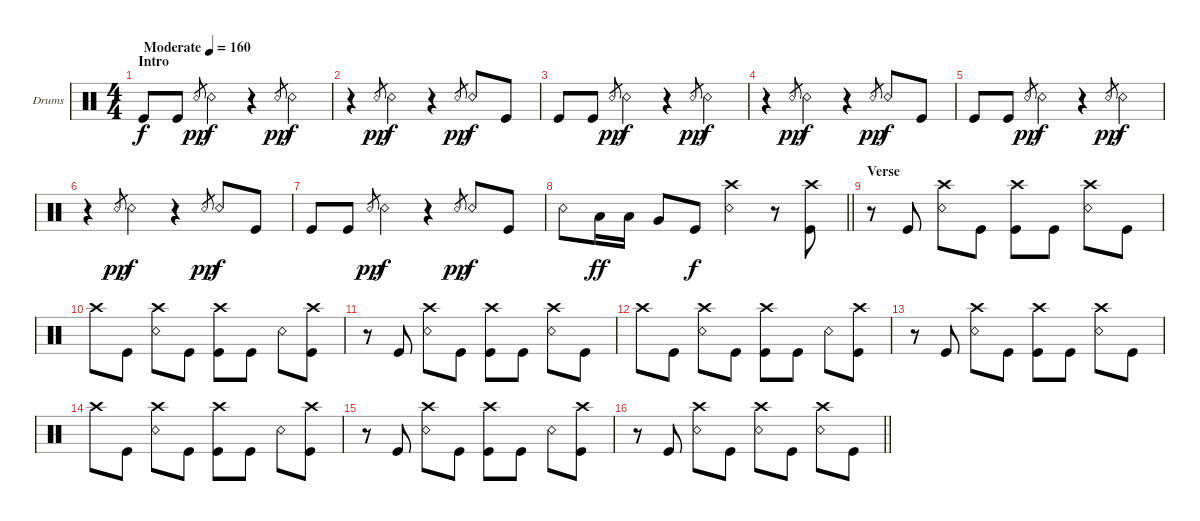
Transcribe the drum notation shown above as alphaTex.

\bracketExtendMode groupsimilarinstruments
\firstSystemTrackNameOrientation horizontal
\otherSystemsTrackNameOrientation horizontal
\track ("Drums" "Drums") {instrument percussion}
\staff {score}
\articulation defaults
\ts (4 4)
\beaming (8 2 2 2 2)
\section ("" "Intro")
\tempo (160 "Moderate")
\clef neutral
\ks c "Kick (hit)".8{dy f} "Kick (hit)".8 "Snare (rim shot)".8{gr dy pp} "Snare (rim shot)".4{dy f}
r.4 "Snare (rim shot)".8{gr dy pp} "Snare (rim shot)".4{dy f} |
r.4 "Snare (rim shot)".8{gr dy pp} "Snare (rim shot)".4{dy f} r.4 "Snare (rim shot)".8{gr dy pp} "Snare (rim shot)".8{dy f} "Kick (hit)".8 |
"Kick (hit)".8 "Kick (hit)".8 "Snare (rim shot)".8{gr dy pp} "Snare (rim shot)".4{dy f} r.4 "Snare (rim shot)".8{gr dy pp} "Snare (rim shot)".4{dy f} |
r.4 "Snare (rim shot)".8{gr dy pp} "Snare (rim shot)".4{dy f} r.4 "Snare (rim shot)".8{gr dy pp} "Snare (rim shot)".8{dy f} "Kick (hit)".8 |
"Kick (hit)".8 "Kick (hit)".8 "Snare (rim shot)".8{gr dy pp} "Snare (rim shot)".4{dy f} r.4 "Snare (rim shot)".8{gr dy pp} "Snare (rim shot)".4{dy f} |
r.4 "Snare (rim shot)".8{gr dy pp} "Snare (rim shot)".4{dy f} r.4 "Snare (rim shot)".8{gr dy pp} "Snare (rim shot)".8{dy f} "Kick (hit)".8 |
"Kick (hit)".8 "Kick (hit)".8 "Snare (rim shot)".8{gr dy pp} "Snare (rim shot)".4{dy f} r.4 "Snare (rim shot)".8{gr dy pp} "Snare (rim shot)".8{dy f} "Kick (hit)".8 |
\barLineRight lightlight "Snare (rim shot)".8 "Low Tom (hit)".16{dy ff} "Low Tom (hit)".16 "Very Low Tom (hit)".8 "Kick (hit)".8{dy f}
("Crash high (hit)" "Snare (rim shot)").4 r.8 ("Kick (hit)" "Crash high (hit)").8 |
\section ("" "Verse")
r.8 "Kick (hit)".8 ("Crash high (hit)" "Snare (rim shot)").8 "Kick (hit)".8 ("Crash high (hit)" "Kick (hit)").8 "Kick (hit)".8 ("Crash high (hit)" "Snare (rim shot)").8 "Kick (hit)".8 |
"Crash high (hit)".8 "Kick (hit)".8 ("Crash high (hit)" "Snare (rim shot)").8 "Kick (hit)".8 ("Crash high (hit)" "Kick (hit)").8 "Kick (hit)".8 "Snare (rim shot)".8 ("Kick (hit)" "Crash high (hit)").8 |
r.8 "Kick (hit)".8 ("Crash high (hit)" "Snare (rim shot)").8 "Kick (hit)".8 ("Crash high (hit)" "Kick (hit)").8 "Kick (hit)".8 ("Crash high (hit)" "Snare (rim shot)").8 "Kick (hit)".8 |
"Crash high (hit)".8 "Kick (hit)".8 ("Crash high (hit)" "Snare (rim shot)").8 "Kick (hit)".8 ("Crash high (hit)" "Kick (hit)").8 "Kick (hit)".8 "Snare (rim shot)".8 ("Kick (hit)" "Crash high (hit)").8 |
r.8 "Kick (hit)".8 ("Crash high (hit)" "Snare (rim shot)").8 "Kick (hit)".8 ("Crash high (hit)" "Kick (hit)").8 "Kick (hit)".8 ("Crash high (hit)" "Snare (rim shot)").8 "Kick (hit)".8 |
"Crash high (hit)".8 "Kick (hit)".8 ("Crash high (hit)" "Snare (rim shot)").8 "Kick (hit)".8 ("Crash high (hit)" "Kick (hit)").8 "Kick (hit)".8 "Snare (rim shot)".8 ("Kick (hit)" "Crash high (hit)").8 |
r.8 "Kick (hit)".8 ("Crash high (hit)" "Snare (rim shot)").8 "Kick (hit)".8 ("Crash high (hit)" "Kick (hit)").8 "Kick (hit)".8 "Snare (rim shot)".8 ("Kick (hit)" "Crash high (hit)").8 |
\barLineRight lightlight
r.8 "Kick (hit)".8 ("Crash high (hit)" "Snare (rim shot)").8 "Kick (hit)".8 ("Crash high (hit)" "Snare (rim shot)").8 "Kick (hit)".8 ("Crash high (hit)" "Snare (rim shot)").8 "Kick (hit)".8
